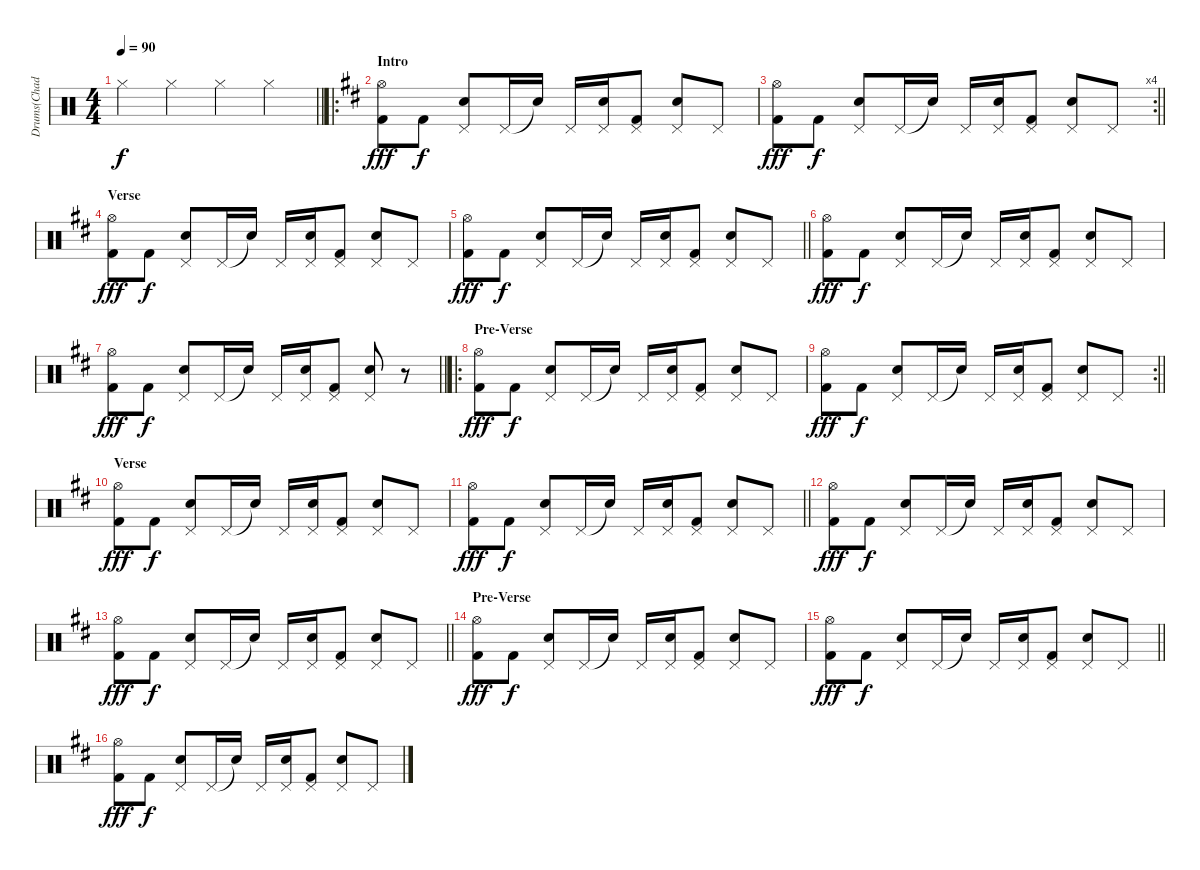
\track ("Drums(Chad Smith)" "Drums(Chad") {instrument percussion}
\staff {score}
\articulation defaults
\ts (4 4)
\tempo 90
\clef neutral
\barLineRight lightlight
\ks c "Hi-Hat (closed)".4{dy f} "Hi-Hat (closed)".4 "Hi-Hat (closed)".4 "Hi-Hat (closed)".4
|
\ro
\section ("" "Intro")
\ks d
("Hi-Hat (open)" "Kick (hit) 2").8{dy fff} "Kick (hit) 2".8{dy f} ("Pedal Hi-Hat (hit)" "Snare (hit) 2").8 "Pedal Hi-Hat (hit)".16 "Snare (hit)"{t}.16 "Pedal Hi-Hat (hit)".16 ("Pedal Hi-Hat (hit)" "Snare (hit) 2").16 ("Pedal Hi-Hat (hit)" "Kick (hit) 2").8 ("Pedal Hi-Hat (hit)" "Snare (hit) 2").8 "Pedal Hi-Hat (hit)".8 |
\rc 4
\barLineRight lightlight
("Hi-Hat (open)" "Kick (hit) 2").8{dy fff} "Kick (hit) 2".8{dy f} ("Pedal Hi-Hat (hit)" "Snare (hit) 2").8 "Pedal Hi-Hat (hit)".16 "Snare (hit)"{t}.16 "Pedal Hi-Hat (hit)".16 ("Pedal Hi-Hat (hit)" "Snare (hit) 2").16 ("Pedal Hi-Hat (hit)" "Kick (hit) 2").8 ("Pedal Hi-Hat (hit)" "Snare (hit) 2").8 "Pedal Hi-Hat (hit)".8 |
\section ("" "Verse")
("Hi-Hat (open)" "Kick (hit) 2").8{dy fff} "Kick (hit) 2".8{dy f} ("Pedal Hi-Hat (hit)" "Snare (hit) 2").8 "Pedal Hi-Hat (hit)".16 "Snare (hit)"{t}.16 "Pedal Hi-Hat (hit)".16 ("Pedal Hi-Hat (hit)" "Snare (hit) 2").16 ("Pedal Hi-Hat (hit)" "Kick (hit) 2").8 ("Pedal Hi-Hat (hit)" "Snare (hit) 2").8 "Pedal Hi-Hat (hit)".8 |
\barLineRight lightlight
("Hi-Hat (open)" "Kick (hit) 2").8{dy fff} "Kick (hit) 2".8{dy f} ("Pedal Hi-Hat (hit)" "Snare (hit) 2").8 "Pedal Hi-Hat (hit)".16 "Snare (hit)"{t}.16 "Pedal Hi-Hat (hit)".16 ("Pedal Hi-Hat (hit)" "Snare (hit) 2").16 ("Pedal Hi-Hat (hit)" "Kick (hit) 2").8 ("Pedal Hi-Hat (hit)" "Snare (hit) 2").8 "Pedal Hi-Hat (hit)".8 |
("Hi-Hat (open)" "Kick (hit) 2").8{dy fff} "Kick (hit) 2".8{dy f} ("Pedal Hi-Hat (hit)" "Snare (hit) 2").8 "Pedal Hi-Hat (hit)".16 "Snare (hit)"{t}.16 "Pedal Hi-Hat (hit)".16 ("Pedal Hi-Hat (hit)" "Snare (hit) 2").16 ("Pedal Hi-Hat (hit)" "Kick (hit) 2").8 ("Pedal Hi-Hat (hit)" "Snare (hit) 2").8 "Pedal Hi-Hat (hit)".8 |
\barLineRight lightlight
("Hi-Hat (open)" "Kick (hit) 2").8{dy fff} "Kick (hit) 2".8{dy f} ("Pedal Hi-Hat (hit)" "Snare (hit) 2").8 "Pedal Hi-Hat (hit)".16 "Snare (hit)"{t}.16 "Pedal Hi-Hat (hit)".16 ("Pedal Hi-Hat (hit)" "Snare (hit) 2").16 ("Pedal Hi-Hat (hit)" "Kick (hit) 2").8 ("Pedal Hi-Hat (hit)" "Snare (hit) 2").8 r.8 |
\ro
\section ("" "Pre-Verse")
("Hi-Hat (open)" "Kick (hit) 2").8{dy fff} "Kick (hit) 2".8{dy f} ("Pedal Hi-Hat (hit)" "Snare (hit) 2").8 "Pedal Hi-Hat (hit)".16 "Snare (hit)"{t}.16 "Pedal Hi-Hat (hit)".16 ("Pedal Hi-Hat (hit)" "Snare (hit) 2").16 ("Pedal Hi-Hat (hit)" "Kick (hit) 2").8 ("Pedal Hi-Hat (hit)" "Snare (hit) 2").8 "Pedal Hi-Hat (hit)".8 |
\rc 2
\barLineRight lightlight
("Hi-Hat (open)" "Kick (hit) 2").8{dy fff} "Kick (hit) 2".8{dy f} ("Pedal Hi-Hat (hit)" "Snare (hit) 2").8 "Pedal Hi-Hat (hit)".16 "Snare (hit)"{t}.16 "Pedal Hi-Hat (hit)".16 ("Pedal Hi-Hat (hit)" "Snare (hit) 2").16 ("Pedal Hi-Hat (hit)" "Kick (hit) 2").8 ("Pedal Hi-Hat (hit)" "Snare (hit) 2").8 "Pedal Hi-Hat (hit)".8 |
\section ("" "Verse")
("Hi-Hat (open)" "Kick (hit) 2").8{dy fff} "Kick (hit) 2".8{dy f} ("Pedal Hi-Hat (hit)" "Snare (hit) 2").8 "Pedal Hi-Hat (hit)".16 "Snare (hit)"{t}.16 "Pedal Hi-Hat (hit)".16 ("Pedal Hi-Hat (hit)" "Snare (hit) 2").16 ("Pedal Hi-Hat (hit)" "Kick (hit) 2").8 ("Pedal Hi-Hat (hit)" "Snare (hit) 2").8 "Pedal Hi-Hat (hit)".8 |
\barLineRight lightlight
("Hi-Hat (open)" "Kick (hit) 2").8{dy fff} "Kick (hit) 2".8{dy f} ("Pedal Hi-Hat (hit)" "Snare (hit) 2").8 "Pedal Hi-Hat (hit)".16 "Snare (hit)"{t}.16 "Pedal Hi-Hat (hit)".16 ("Pedal Hi-Hat (hit)" "Snare (hit) 2").16 ("Pedal Hi-Hat (hit)" "Kick (hit) 2").8 ("Pedal Hi-Hat (hit)" "Snare (hit) 2").8 "Pedal Hi-Hat (hit)".8 |
("Hi-Hat (open)" "Kick (hit) 2").8{dy fff} "Kick (hit) 2".8{dy f} ("Pedal Hi-Hat (hit)" "Snare (hit) 2").8 "Pedal Hi-Hat (hit)".16 "Snare (hit)"{t}.16 "Pedal Hi-Hat (hit)".16 ("Pedal Hi-Hat (hit)" "Snare (hit) 2").16 ("Pedal Hi-Hat (hit)" "Kick (hit) 2").8 ("Pedal Hi-Hat (hit)" "Snare (hit) 2").8 "Pedal Hi-Hat (hit)".8 |
\barLineRight lightlight
("Hi-Hat (open)" "Kick (hit) 2").8{dy fff} "Kick (hit) 2".8{dy f} ("Pedal Hi-Hat (hit)" "Snare (hit) 2").8 "Pedal Hi-Hat (hit)".16 "Snare (hit)"{t}.16 "Pedal Hi-Hat (hit)".16 ("Pedal Hi-Hat (hit)" "Snare (hit) 2").16 ("Pedal Hi-Hat (hit)" "Kick (hit) 2").8 ("Pedal Hi-Hat (hit)" "Snare (hit) 2").8 "Pedal Hi-Hat (hit)".8 |
\section ("" "Pre-Verse")
("Hi-Hat (open)" "Kick (hit) 2").8{dy fff} "Kick (hit) 2".8{dy f} ("Pedal Hi-Hat (hit)" "Snare (hit) 2").8 "Pedal Hi-Hat (hit)".16 "Snare (hit)"{t}.16 "Pedal Hi-Hat (hit)".16 ("Pedal Hi-Hat (hit)" "Snare (hit) 2").16 ("Pedal Hi-Hat (hit)" "Kick (hit) 2").8 ("Pedal Hi-Hat (hit)" "Snare (hit) 2").8 "Pedal Hi-Hat (hit)".8 |
\barLineRight lightlight
("Hi-Hat (open)" "Kick (hit) 2").8{dy fff} "Kick (hit) 2".8{dy f} ("Pedal Hi-Hat (hit)" "Snare (hit) 2").8 "Pedal Hi-Hat (hit)".16 "Snare (hit)"{t}.16 "Pedal Hi-Hat (hit)".16 ("Pedal Hi-Hat (hit)" "Snare (hit) 2").16 ("Pedal Hi-Hat (hit)" "Kick (hit) 2").8 ("Pedal Hi-Hat (hit)" "Snare (hit) 2").8 "Pedal Hi-Hat (hit)".8 |
("Hi-Hat (open)" "Kick (hit) 2").8{dy fff} "Kick (hit) 2".8{dy f} ("Pedal Hi-Hat (hit)" "Snare (hit) 2").8 "Pedal Hi-Hat (hit)".16 "Snare (hit)"{t}.16 "Pedal Hi-Hat (hit)".16 ("Pedal Hi-Hat (hit)" "Snare (hit) 2").16 ("Pedal Hi-Hat (hit)" "Kick (hit) 2").8 ("Pedal Hi-Hat (hit)" "Snare (hit) 2").8 "Pedal Hi-Hat (hit)".8
